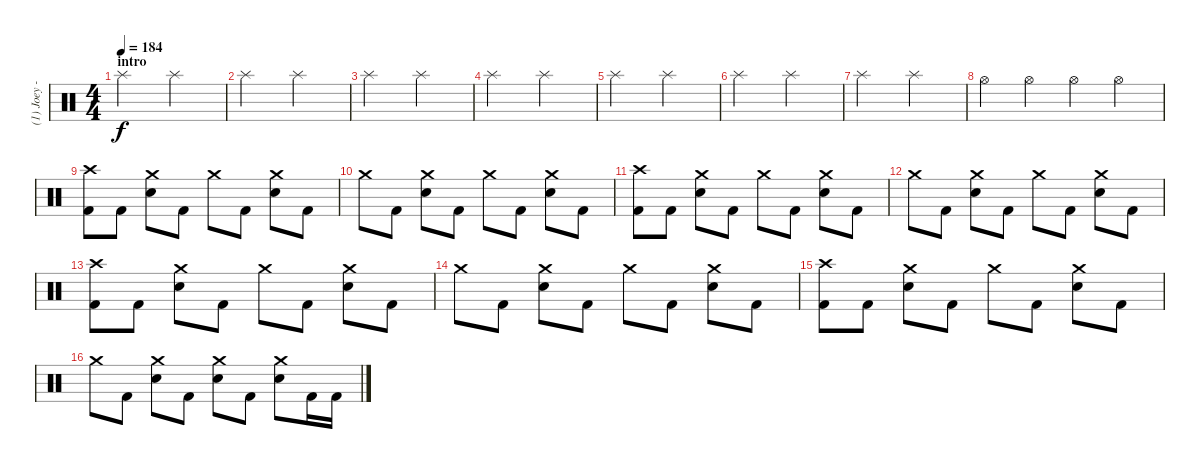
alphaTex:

\track ("(1) Joey - drums" "(1) Joey -") {instrument percussion}
\staff {score}
\articulation defaults
\ts (4 4)
\section ("" "intro")
\tempo 184
\clef neutral
\ks c "Splash (hit)".2{dy f} "Splash (hit)".2
|
"Splash (hit)".2 "Splash (hit)".2 |
"Splash (hit)".2 "Splash (hit)".2 |
"Splash (hit)".2 "Splash (hit)".2 |
"Splash (hit)".2 "Splash (hit)".2 |
"Splash (hit)".2 "Splash (hit)".2 |
"Splash (hit)".2 "Splash (hit)".2 |
"Hi-Hat (open)".4 "Hi-Hat (open)".4 "Hi-Hat (open)".4 "Hi-Hat (open)".4 |
("Crash high (hit)" "Kick (hit) 2").8 "Kick (hit) 2".8 ("Crash medium (hit)" "Electric Snare (hit)").8 "Kick (hit) 2".8 "Crash medium (hit)".8 "Kick (hit) 2".8 ("Crash medium (hit)" "Electric Snare (hit)").8 "Kick (hit) 2".8 |
"Crash medium (hit)".8 "Kick (hit) 2".8 ("Crash medium (hit)" "Electric Snare (hit)").8 "Kick (hit) 2".8 "Crash medium (hit)".8 "Kick (hit) 2".8 ("Crash medium (hit)" "Electric Snare (hit)").8 "Kick (hit) 2".8 |
("Crash high (hit)" "Kick (hit) 2").8 "Kick (hit) 2".8 ("Crash medium (hit)" "Electric Snare (hit)").8 "Kick (hit) 2".8 "Crash medium (hit)".8 "Kick (hit) 2".8 ("Crash medium (hit)" "Electric Snare (hit)").8 "Kick (hit) 2".8 |
"Crash medium (hit)".8 "Kick (hit) 2".8 ("Crash medium (hit)" "Electric Snare (hit)").8 "Kick (hit) 2".8 "Crash medium (hit)".8 "Kick (hit) 2".8 ("Crash medium (hit)" "Electric Snare (hit)").8 "Kick (hit) 2".8 |
("Crash high (hit)" "Kick (hit) 2").8 "Kick (hit) 2".8 ("Crash medium (hit)" "Electric Snare (hit)").8 "Kick (hit) 2".8 "Crash medium (hit)".8 "Kick (hit) 2".8 ("Crash medium (hit)" "Electric Snare (hit)").8 "Kick (hit) 2".8 |
"Crash medium (hit)".8 "Kick (hit) 2".8 ("Crash medium (hit)" "Electric Snare (hit)").8 "Kick (hit) 2".8 "Crash medium (hit)".8 "Kick (hit) 2".8 ("Crash medium (hit)" "Electric Snare (hit)").8 "Kick (hit) 2".8 |
("Crash high (hit)" "Kick (hit) 2").8 "Kick (hit) 2".8 ("Crash medium (hit)" "Electric Snare (hit)").8 "Kick (hit) 2".8 "Crash medium (hit)".8 "Kick (hit) 2".8 ("Crash medium (hit)" "Electric Snare (hit)").8 "Kick (hit) 2".8 |
"Crash medium (hit)".8 "Kick (hit) 2".8 ("Crash medium (hit)" "Electric Snare (hit)").8 "Kick (hit) 2".8 ("Crash medium (hit)" "Electric Snare (hit)").8 "Kick (hit) 2".8 ("Crash medium (hit)" "Electric Snare (hit)").8 "Kick (hit) 2".16 "Kick (hit) 2".16
